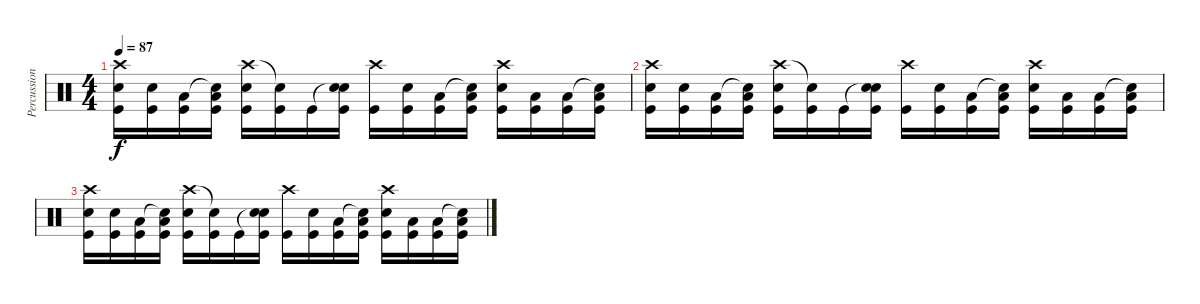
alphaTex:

\track ("Percussions" "Percussion") {instrument percussion}
\staff {score}
\articulation defaults
\ts (4 4)
\tempo 87
\clef neutral
\ks c
("Crash high (hit)" "Snare (hit) 2" "Kick (hit)").16{dy f} ("Snare (hit) 2" "Kick (hit)").16 ("Low Floor Tom (hit)" "Kick (hit)").16 ("Snare (hit)"{t} "Low Floor Tom (hit)" "Kick (hit)").16 ("Crash high (hit)" "Snare (hit) 2" "Kick (hit)").16 ("Snare (hit) 2"{t} "Kick (hit)").16 "Kick (hit)".16 ("Snare (hit)"{t} "Snare (hit) 2" "Kick (hit)").16 ("Crash high (hit)" "Kick (hit)").16 ("Snare (hit) 2" "Kick (hit)").16 ("Low Floor Tom (hit)" "Kick (hit)").16 ("Snare (hit)"{t} "Low Floor Tom (hit)" "Kick (hit)").16 ("Crash high (hit)" "Snare (hit) 2" "Kick (hit)").16 ("Low Floor Tom (hit)" "Kick (hit)").16 ("Low Floor Tom (hit)" "Kick (hit)").16 ("Snare (hit)"{t} "Low Floor Tom (hit)" "Kick (hit)").16 |
("Crash high (hit)" "Snare (hit) 2" "Kick (hit)").16 ("Snare (hit) 2" "Kick (hit)").16 ("Low Floor Tom (hit)" "Kick (hit)").16 ("Snare (hit)"{t} "Low Floor Tom (hit)" "Kick (hit)").16 ("Crash high (hit)" "Snare (hit) 2" "Kick (hit)").16 ("Snare (hit) 2"{t} "Kick (hit)").16 "Kick (hit)".16 ("Snare (hit)"{t} "Snare (hit) 2" "Kick (hit)").16 ("Crash high (hit)" "Kick (hit)").16 ("Snare (hit) 2" "Kick (hit)").16 ("Low Floor Tom (hit)" "Kick (hit)").16 ("Snare (hit)"{t} "Low Floor Tom (hit)" "Kick (hit)").16 ("Crash high (hit)" "Snare (hit) 2" "Kick (hit)").16 ("Low Floor Tom (hit)" "Kick (hit)").16 ("Low Floor Tom (hit)" "Kick (hit)").16 ("Snare (hit)"{t} "Low Floor Tom (hit)" "Kick (hit)").16 |
("Crash high (hit)" "Snare (hit) 2" "Kick (hit)").16 ("Snare (hit) 2" "Kick (hit)").16 ("Low Floor Tom (hit)" "Kick (hit)").16 ("Snare (hit)"{t} "Low Floor Tom (hit)" "Kick (hit)").16 ("Crash high (hit)" "Snare (hit) 2" "Kick (hit)").16 ("Snare (hit) 2"{t} "Kick (hit)").16 "Kick (hit)".16 ("Snare (hit)"{t} "Snare (hit) 2" "Kick (hit)").16 ("Crash high (hit)" "Kick (hit)").16 ("Snare (hit) 2" "Kick (hit)").16 ("Low Floor Tom (hit)" "Kick (hit)").16 ("Snare (hit)"{t} "Low Floor Tom (hit)" "Kick (hit)").16 ("Crash high (hit)" "Snare (hit) 2" "Kick (hit)").16 ("Low Floor Tom (hit)" "Kick (hit)").16 ("Low Floor Tom (hit)" "Kick (hit)").16 ("Snare (hit)"{t} "Low Floor Tom (hit)" "Kick (hit)").16
